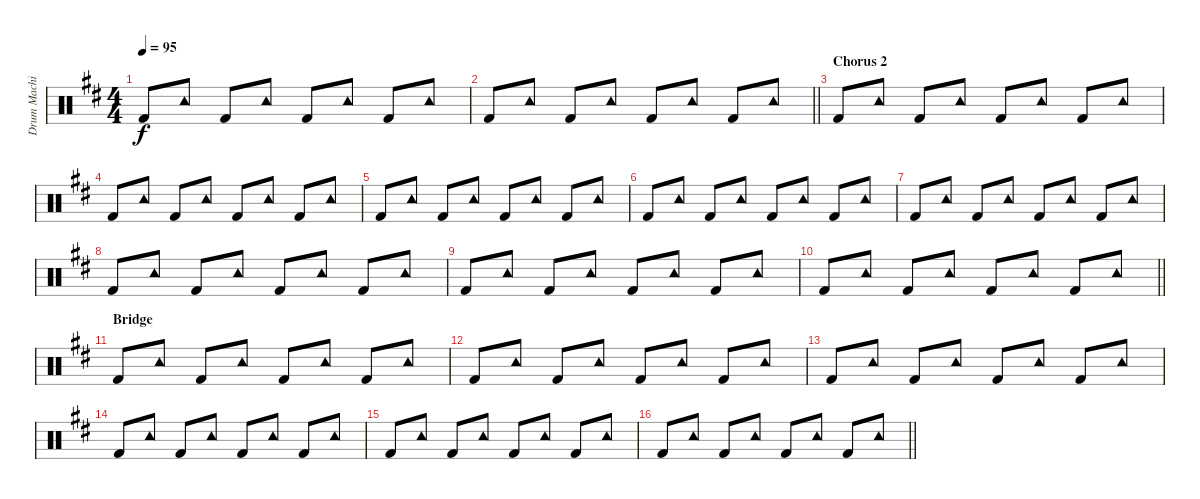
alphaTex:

\track ("Drum Machine" "Drum Machi") {instrument percussion}
\staff {score}
\articulation defaults
\ts (4 4)
\tempo 95
\clef neutral
\ks d "Kick (hit) 2".8{dy f} "Tambourine (hit)".8 "Kick (hit) 2".8 "Tambourine (hit)".8 "Kick (hit) 2".8 "Tambourine (hit)".8 "Kick (hit) 2".8 "Tambourine (hit)".8
|
\barLineRight lightlight "Kick (hit) 2".8 "Tambourine (hit)".8 "Kick (hit) 2".8 "Tambourine (hit)".8 "Kick (hit) 2".8 "Tambourine (hit)".8 "Kick (hit) 2".8 "Tambourine (hit)".8
|
\section ("" "Chorus 2")
"Kick (hit) 2".8 "Tambourine (hit)".8 "Kick (hit) 2".8 "Tambourine (hit)".8 "Kick (hit) 2".8 "Tambourine (hit)".8 "Kick (hit) 2".8 "Tambourine (hit)".8 |
"Kick (hit) 2".8 "Tambourine (hit)".8 "Kick (hit) 2".8 "Tambourine (hit)".8 "Kick (hit) 2".8 "Tambourine (hit)".8 "Kick (hit) 2".8 "Tambourine (hit)".8 |
"Kick (hit) 2".8 "Tambourine (hit)".8 "Kick (hit) 2".8 "Tambourine (hit)".8 "Kick (hit) 2".8 "Tambourine (hit)".8 "Kick (hit) 2".8 "Tambourine (hit)".8 |
"Kick (hit) 2".8 "Tambourine (hit)".8 "Kick (hit) 2".8 "Tambourine (hit)".8 "Kick (hit) 2".8 "Tambourine (hit)".8 "Kick (hit) 2".8 "Tambourine (hit)".8 |
"Kick (hit) 2".8 "Tambourine (hit)".8 "Kick (hit) 2".8 "Tambourine (hit)".8 "Kick (hit) 2".8 "Tambourine (hit)".8 "Kick (hit) 2".8 "Tambourine (hit)".8 |
"Kick (hit) 2".8 "Tambourine (hit)".8 "Kick (hit) 2".8 "Tambourine (hit)".8 "Kick (hit) 2".8 "Tambourine (hit)".8 "Kick (hit) 2".8 "Tambourine (hit)".8 |
"Kick (hit) 2".8 "Tambourine (hit)".8 "Kick (hit) 2".8 "Tambourine (hit)".8 "Kick (hit) 2".8 "Tambourine (hit)".8 "Kick (hit) 2".8 "Tambourine (hit)".8 |
\barLineRight lightlight "Kick (hit) 2".8 "Tambourine (hit)".8 "Kick (hit) 2".8 "Tambourine (hit)".8 "Kick (hit) 2".8 "Tambourine (hit)".8 "Kick (hit) 2".8 "Tambourine (hit)".8
|
\section ("" "Bridge")
"Kick (hit) 2".8 "Tambourine (hit)".8 "Kick (hit) 2".8 "Tambourine (hit)".8 "Kick (hit) 2".8 "Tambourine (hit)".8 "Kick (hit) 2".8 "Tambourine (hit)".8 |
"Kick (hit) 2".8 "Tambourine (hit)".8 "Kick (hit) 2".8 "Tambourine (hit)".8 "Kick (hit) 2".8 "Tambourine (hit)".8 "Kick (hit) 2".8 "Tambourine (hit)".8 |
"Kick (hit) 2".8 "Tambourine (hit)".8 "Kick (hit) 2".8 "Tambourine (hit)".8 "Kick (hit) 2".8 "Tambourine (hit)".8 "Kick (hit) 2".8 "Tambourine (hit)".8 |
"Kick (hit) 2".8 "Tambourine (hit)".8 "Kick (hit) 2".8 "Tambourine (hit)".8 "Kick (hit) 2".8 "Tambourine (hit)".8 "Kick (hit) 2".8 "Tambourine (hit)".8 |
"Kick (hit) 2".8 "Tambourine (hit)".8 "Kick (hit) 2".8 "Tambourine (hit)".8 "Kick (hit) 2".8 "Tambourine (hit)".8 "Kick (hit) 2".8 "Tambourine (hit)".8 |
\barLineRight lightlight "Kick (hit) 2".8 "Tambourine (hit)".8 "Kick (hit) 2".8 "Tambourine (hit)".8 "Kick (hit) 2".8 "Tambourine (hit)".8 "Kick (hit) 2".8 "Tambourine (hit)".8
